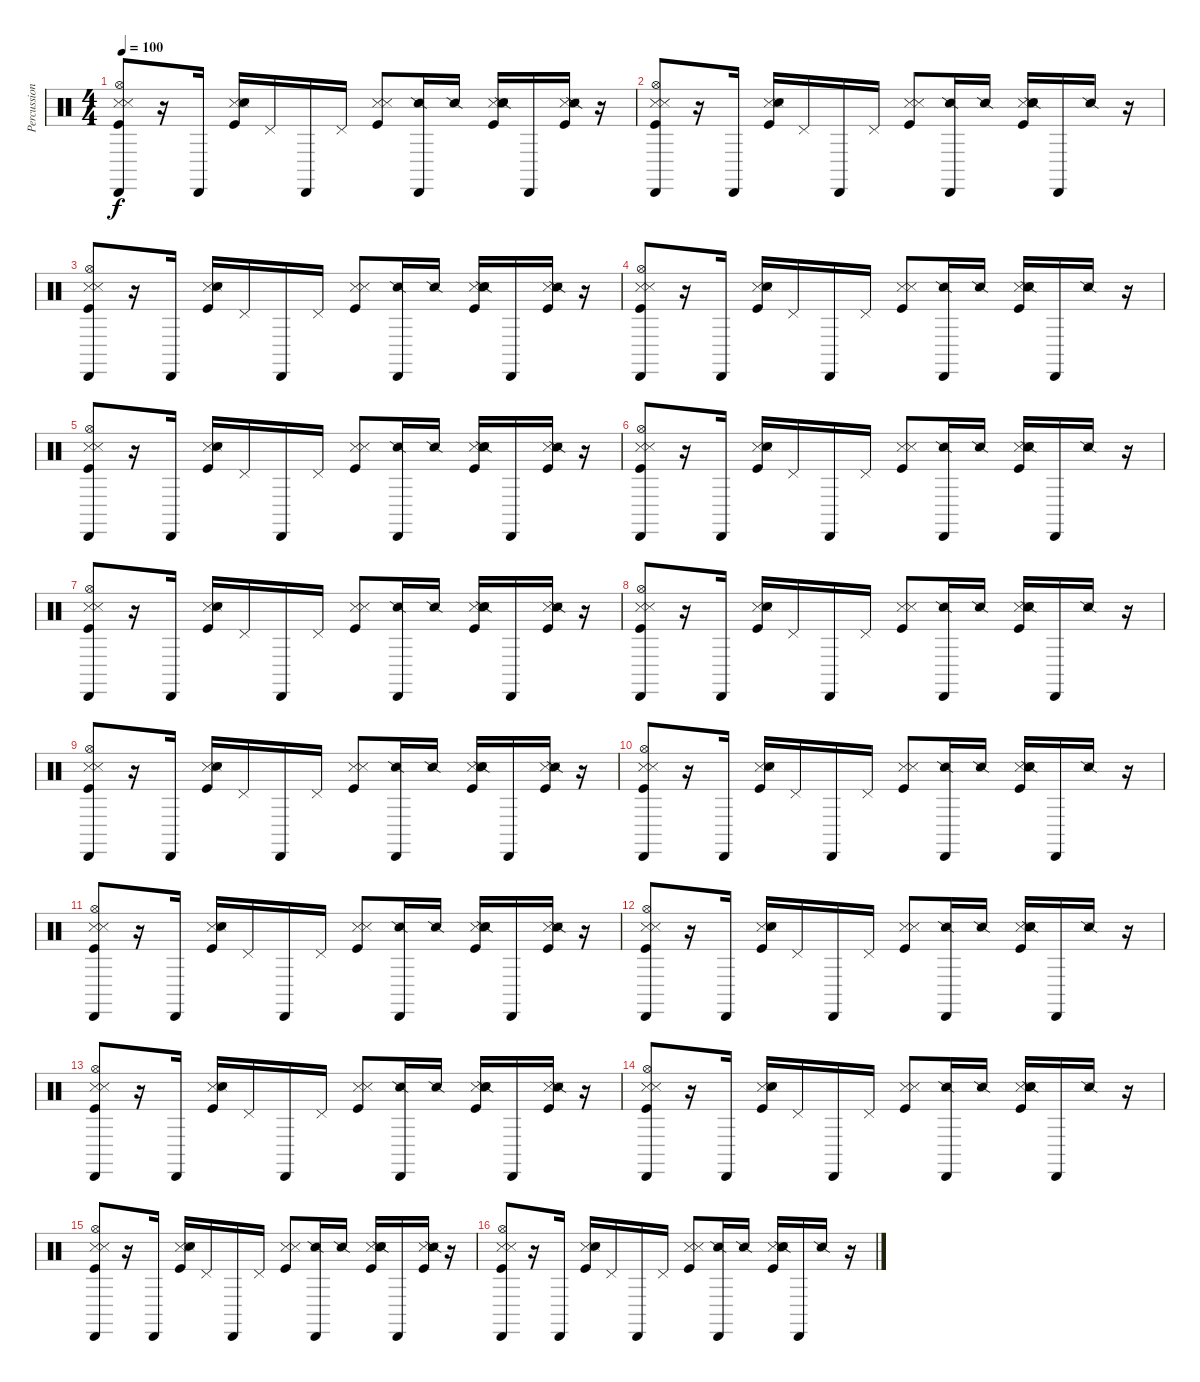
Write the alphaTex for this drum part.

\track ("Percussion" "Percussion") {instrument percussion}
\staff {score}
\articulation defaults
\ts (4 4)
\tempo 100
\clef neutral
\ks c
("Cabasa (hit)" "Metronome (hit)" "Hi-Hat (open)" "Kick (hit)" "Snare (side stick) 3").8{dy f} r.16 "Cabasa (hit)".16 ("Metronome (hit)" "Kick (hit)" "Snare (side stick) 3" "Snare (hit) 2").16 "Pedal Hi-Hat (hit)".16 "Cabasa (hit)".16 "Pedal Hi-Hat (hit)".16 ("Metronome (hit)" "Kick (hit)" "Snare (side stick) 3").8 ("Cabasa (hit)" "Snare (side stick) 2").16 "Snare (side stick) 2".16 ("Metronome (hit)" "Kick (hit)" "Snare (side stick) 3" "Snare (hit) 2" "Snare (side stick) 2").16 "Cabasa (hit)".16 ("Metronome (hit)" "Kick (hit)" "Snare (side stick) 3" "Snare (side stick) 2").16 r.16 |
("Cabasa (hit)" "Metronome (hit)" "Kick (hit)" "Hi-Hat (open)" "Snare (side stick) 3").8 r.16 "Cabasa (hit)".16 ("Metronome (hit)" "Kick (hit)" "Snare (side stick) 3" "Snare (hit) 2").16 "Pedal Hi-Hat (hit)".16 "Cabasa (hit)".16 "Pedal Hi-Hat (hit)".16 ("Metronome (hit)" "Kick (hit)" "Snare (side stick) 3").8 ("Cabasa (hit)" "Snare (side stick) 2").16 "Snare (side stick) 2".16 ("Metronome (hit)" "Kick (hit)" "Snare (side stick) 3" "Snare (hit) 2" "Snare (side stick) 2").16 "Cabasa (hit)".16 "Snare (side stick) 2".16 r.16 |
("Cabasa (hit)" "Metronome (hit)" "Kick (hit)" "Hi-Hat (open)" "Snare (side stick) 3").8 r.16 "Cabasa (hit)".16 ("Metronome (hit)" "Kick (hit)" "Snare (side stick) 3" "Snare (hit) 2").16 "Pedal Hi-Hat (hit)".16 "Cabasa (hit)".16 "Pedal Hi-Hat (hit)".16 ("Metronome (hit)" "Kick (hit)" "Snare (side stick) 3").8 ("Cabasa (hit)" "Snare (side stick) 2").16 "Snare (side stick) 2".16 ("Metronome (hit)" "Kick (hit)" "Snare (side stick) 3" "Snare (hit) 2" "Snare (side stick) 2").16 "Cabasa (hit)".16 ("Metronome (hit)" "Kick (hit)" "Snare (side stick) 3" "Snare (side stick) 2").16 r.16 |
("Cabasa (hit)" "Metronome (hit)" "Kick (hit)" "Hi-Hat (open)" "Snare (side stick) 3").8 r.16 "Cabasa (hit)".16 ("Metronome (hit)" "Kick (hit)" "Snare (side stick) 3" "Snare (hit) 2").16 "Pedal Hi-Hat (hit)".16 "Cabasa (hit)".16 "Pedal Hi-Hat (hit)".16 ("Metronome (hit)" "Kick (hit)" "Snare (side stick) 3").8 ("Cabasa (hit)" "Snare (side stick) 2").16 "Snare (side stick) 2".16 ("Metronome (hit)" "Kick (hit)" "Snare (side stick) 3" "Snare (hit) 2" "Snare (side stick) 2").16 "Cabasa (hit)".16 "Snare (side stick) 2".16 r.16 |
("Cabasa (hit)" "Metronome (hit)" "Hi-Hat (open)" "Kick (hit)" "Snare (side stick) 3").8 r.16 "Cabasa (hit)".16 ("Metronome (hit)" "Kick (hit)" "Snare (side stick) 3" "Snare (hit) 2").16 "Pedal Hi-Hat (hit)".16 "Cabasa (hit)".16 "Pedal Hi-Hat (hit)".16 ("Metronome (hit)" "Kick (hit)" "Snare (side stick) 3").8 ("Cabasa (hit)" "Snare (side stick) 2").16 "Snare (side stick) 2".16 ("Metronome (hit)" "Kick (hit)" "Snare (side stick) 3" "Snare (hit) 2" "Snare (side stick) 2").16 "Cabasa (hit)".16 ("Metronome (hit)" "Kick (hit)" "Snare (side stick) 3" "Snare (side stick) 2").16 r.16 |
("Cabasa (hit)" "Metronome (hit)" "Kick (hit)" "Hi-Hat (open)" "Snare (side stick) 3").8 r.16 "Cabasa (hit)".16 ("Metronome (hit)" "Kick (hit)" "Snare (side stick) 3" "Snare (hit) 2").16 "Pedal Hi-Hat (hit)".16 "Cabasa (hit)".16 "Pedal Hi-Hat (hit)".16 ("Metronome (hit)" "Kick (hit)" "Snare (side stick) 3").8 ("Cabasa (hit)" "Snare (side stick) 2").16 "Snare (side stick) 2".16 ("Metronome (hit)" "Kick (hit)" "Snare (side stick) 3" "Snare (hit) 2" "Snare (side stick) 2").16 "Cabasa (hit)".16 "Snare (side stick) 2".16 r.16 |
("Cabasa (hit)" "Metronome (hit)" "Kick (hit)" "Hi-Hat (open)" "Snare (side stick) 3").8 r.16 "Cabasa (hit)".16 ("Metronome (hit)" "Kick (hit)" "Snare (side stick) 3" "Snare (hit) 2").16 "Pedal Hi-Hat (hit)".16 "Cabasa (hit)".16 "Pedal Hi-Hat (hit)".16 ("Metronome (hit)" "Kick (hit)" "Snare (side stick) 3").8 ("Cabasa (hit)" "Snare (side stick) 2").16 "Snare (side stick) 2".16 ("Metronome (hit)" "Kick (hit)" "Snare (side stick) 3" "Snare (hit) 2" "Snare (side stick) 2").16 "Cabasa (hit)".16 ("Metronome (hit)" "Kick (hit)" "Snare (side stick) 3" "Snare (side stick) 2").16 r.16 |
("Cabasa (hit)" "Metronome (hit)" "Kick (hit)" "Hi-Hat (open)" "Snare (side stick) 3").8 r.16 "Cabasa (hit)".16 ("Metronome (hit)" "Kick (hit)" "Snare (side stick) 3" "Snare (hit) 2").16 "Pedal Hi-Hat (hit)".16 "Cabasa (hit)".16 "Pedal Hi-Hat (hit)".16 ("Metronome (hit)" "Kick (hit)" "Snare (side stick) 3").8 ("Cabasa (hit)" "Snare (side stick) 2").16 "Snare (side stick) 2".16 ("Metronome (hit)" "Kick (hit)" "Snare (side stick) 3" "Snare (hit) 2" "Snare (side stick) 2").16 "Cabasa (hit)".16 "Snare (side stick) 2".16 r.16 |
("Cabasa (hit)" "Metronome (hit)" "Hi-Hat (open)" "Kick (hit)" "Snare (side stick) 3").8 r.16 "Cabasa (hit)".16 ("Metronome (hit)" "Kick (hit)" "Snare (side stick) 3" "Snare (hit) 2").16 "Pedal Hi-Hat (hit)".16 "Cabasa (hit)".16 "Pedal Hi-Hat (hit)".16 ("Metronome (hit)" "Kick (hit)" "Snare (side stick) 3").8 ("Cabasa (hit)" "Snare (side stick) 2").16 "Snare (side stick) 2".16 ("Metronome (hit)" "Kick (hit)" "Snare (side stick) 3" "Snare (hit) 2" "Snare (side stick) 2").16 "Cabasa (hit)".16 ("Metronome (hit)" "Kick (hit)" "Snare (side stick) 3" "Snare (side stick) 2").16 r.16 |
("Cabasa (hit)" "Metronome (hit)" "Kick (hit)" "Hi-Hat (open)" "Snare (side stick) 3").8 r.16 "Cabasa (hit)".16 ("Metronome (hit)" "Kick (hit)" "Snare (side stick) 3" "Snare (hit) 2").16 "Pedal Hi-Hat (hit)".16 "Cabasa (hit)".16 "Pedal Hi-Hat (hit)".16 ("Metronome (hit)" "Kick (hit)" "Snare (side stick) 3").8 ("Cabasa (hit)" "Snare (side stick) 2").16 "Snare (side stick) 2".16 ("Metronome (hit)" "Kick (hit)" "Snare (side stick) 3" "Snare (hit) 2" "Snare (side stick) 2").16 "Cabasa (hit)".16 "Snare (side stick) 2".16 r.16 |
("Cabasa (hit)" "Metronome (hit)" "Kick (hit)" "Hi-Hat (open)" "Snare (side stick) 3").8 r.16 "Cabasa (hit)".16 ("Metronome (hit)" "Kick (hit)" "Snare (side stick) 3" "Snare (hit) 2").16 "Pedal Hi-Hat (hit)".16 "Cabasa (hit)".16 "Pedal Hi-Hat (hit)".16 ("Metronome (hit)" "Kick (hit)" "Snare (side stick) 3").8 ("Cabasa (hit)" "Snare (side stick) 2").16 "Snare (side stick) 2".16 ("Metronome (hit)" "Kick (hit)" "Snare (side stick) 3" "Snare (hit) 2" "Snare (side stick) 2").16 "Cabasa (hit)".16 ("Metronome (hit)" "Kick (hit)" "Snare (side stick) 3" "Snare (side stick) 2").16 r.16 |
("Cabasa (hit)" "Metronome (hit)" "Kick (hit)" "Hi-Hat (open)" "Snare (side stick) 3").8 r.16 "Cabasa (hit)".16 ("Metronome (hit)" "Kick (hit)" "Snare (side stick) 3" "Snare (hit) 2").16 "Pedal Hi-Hat (hit)".16 "Cabasa (hit)".16 "Pedal Hi-Hat (hit)".16 ("Metronome (hit)" "Kick (hit)" "Snare (side stick) 3").8 ("Cabasa (hit)" "Snare (side stick) 2").16 "Snare (side stick) 2".16 ("Metronome (hit)" "Kick (hit)" "Snare (side stick) 3" "Snare (hit) 2" "Snare (side stick) 2").16 "Cabasa (hit)".16 "Snare (side stick) 2".16 r.16 |
("Cabasa (hit)" "Metronome (hit)" "Hi-Hat (open)" "Kick (hit)" "Snare (side stick) 3").8 r.16 "Cabasa (hit)".16 ("Metronome (hit)" "Kick (hit)" "Snare (side stick) 3" "Snare (hit) 2").16 "Pedal Hi-Hat (hit)".16 "Cabasa (hit)".16 "Pedal Hi-Hat (hit)".16 ("Metronome (hit)" "Kick (hit)" "Snare (side stick) 3").8 ("Cabasa (hit)" "Snare (side stick) 2").16 "Snare (side stick) 2".16 ("Metronome (hit)" "Kick (hit)" "Snare (side stick) 3" "Snare (hit) 2" "Snare (side stick) 2").16 "Cabasa (hit)".16 ("Metronome (hit)" "Kick (hit)" "Snare (side stick) 3" "Snare (side stick) 2").16 r.16 |
("Cabasa (hit)" "Metronome (hit)" "Kick (hit)" "Hi-Hat (open)" "Snare (side stick) 3").8 r.16 "Cabasa (hit)".16 ("Metronome (hit)" "Kick (hit)" "Snare (side stick) 3" "Snare (hit) 2").16 "Pedal Hi-Hat (hit)".16 "Cabasa (hit)".16 "Pedal Hi-Hat (hit)".16 ("Metronome (hit)" "Kick (hit)" "Snare (side stick) 3").8 ("Cabasa (hit)" "Snare (side stick) 2").16 "Snare (side stick) 2".16 ("Metronome (hit)" "Kick (hit)" "Snare (side stick) 3" "Snare (hit) 2" "Snare (side stick) 2").16 "Cabasa (hit)".16 "Snare (side stick) 2".16 r.16 |
("Cabasa (hit)" "Metronome (hit)" "Kick (hit)" "Hi-Hat (open)" "Snare (side stick) 3").8 r.16 "Cabasa (hit)".16 ("Metronome (hit)" "Kick (hit)" "Snare (side stick) 3" "Snare (hit) 2").16 "Pedal Hi-Hat (hit)".16 "Cabasa (hit)".16 "Pedal Hi-Hat (hit)".16 ("Metronome (hit)" "Kick (hit)" "Snare (side stick) 3").8 ("Cabasa (hit)" "Snare (side stick) 2").16 "Snare (side stick) 2".16 ("Metronome (hit)" "Kick (hit)" "Snare (side stick) 3" "Snare (hit) 2" "Snare (side stick) 2").16 "Cabasa (hit)".16 ("Metronome (hit)" "Kick (hit)" "Snare (side stick) 3" "Snare (side stick) 2").16 r.16 |
("Cabasa (hit)" "Metronome (hit)" "Kick (hit)" "Hi-Hat (open)" "Snare (side stick) 3").8 r.16 "Cabasa (hit)".16 ("Metronome (hit)" "Kick (hit)" "Snare (side stick) 3" "Snare (hit) 2").16 "Pedal Hi-Hat (hit)".16 "Cabasa (hit)".16 "Pedal Hi-Hat (hit)".16 ("Metronome (hit)" "Kick (hit)" "Snare (side stick) 3").8 ("Cabasa (hit)" "Snare (side stick) 2").16 "Snare (side stick) 2".16 ("Metronome (hit)" "Kick (hit)" "Snare (side stick) 3" "Snare (hit) 2" "Snare (side stick) 2").16 "Cabasa (hit)".16 "Snare (side stick) 2".16 r.16
